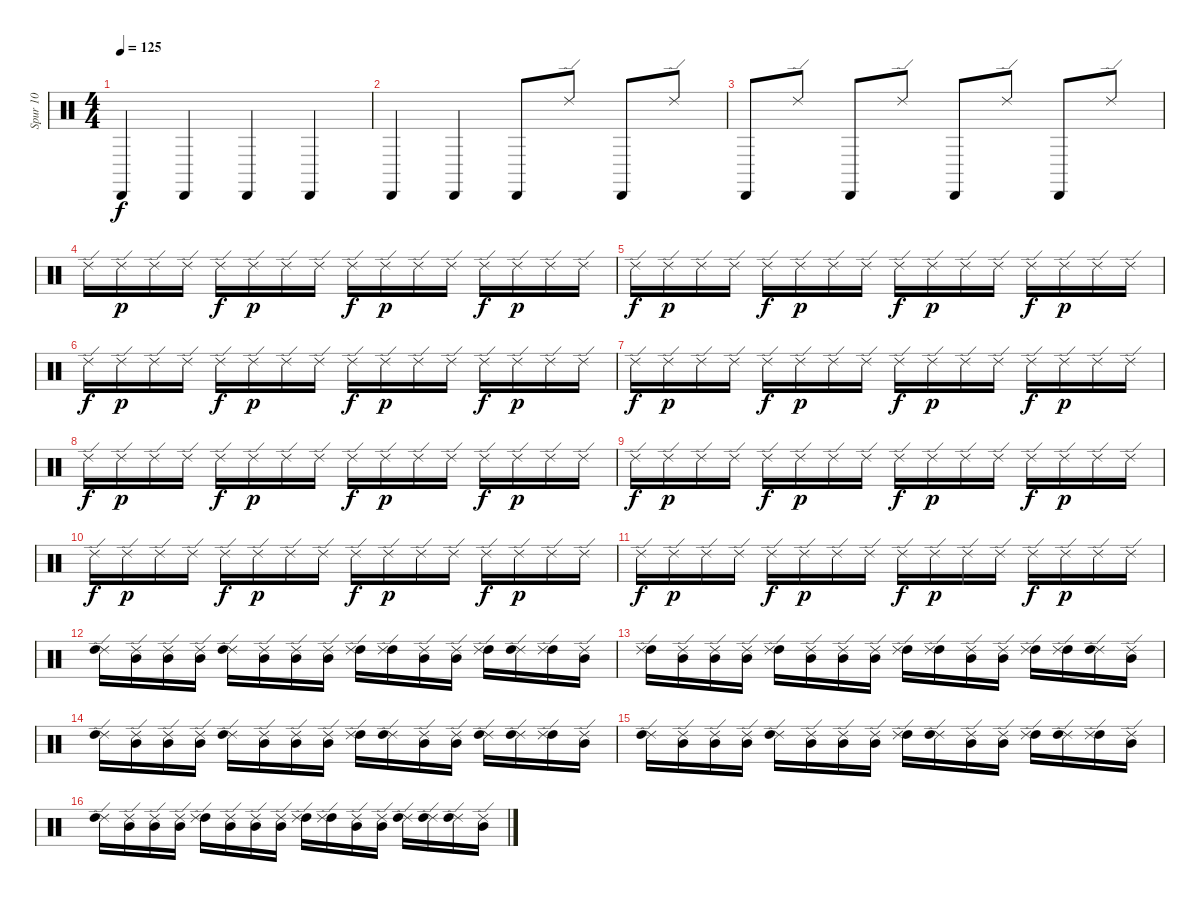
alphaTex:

\track ("Spur 10" "Spur 10") {instrument percussion}
\staff {score}
\articulation defaults
\ts (4 4)
\tempo 125
\clef neutral
\ks c "Cabasa (hit)".4{dy f} "Cabasa (hit)".4 "Cabasa (hit)".4 "Cabasa (hit)".4
|
"Cabasa (hit)".4 "Cabasa (hit)".4 "Cabasa (hit)".8 "Ride (edge) 2".8 "Cabasa (hit)".8 "Ride (edge) 2".8 |
"Cabasa (hit)".8 "Ride (edge) 2".8 "Cabasa (hit)".8 "Ride (edge) 2".8 "Cabasa (hit)".8 "Ride (edge) 2".8 "Cabasa (hit)".8 "Ride (edge) 2".8 |
"Ride (edge) 2".16 "Ride (edge) 2".16{dy p} "Ride (edge) 2".16 "Ride (edge) 2".16 "Ride (edge) 2".16{dy f} "Ride (edge) 2".16{dy p} "Ride (edge) 2".16 "Ride (edge) 2".16 "Ride (edge) 2".16{dy f} "Ride (edge) 2".16{dy p} "Ride (edge) 2".16 "Ride (edge) 2".16 "Ride (edge) 2".16{dy f} "Ride (edge) 2".16{dy p} "Ride (edge) 2".16 "Ride (edge) 2".16 |
"Ride (edge) 2".16{dy f} "Ride (edge) 2".16{dy p} "Ride (edge) 2".16 "Ride (edge) 2".16 "Ride (edge) 2".16{dy f} "Ride (edge) 2".16{dy p} "Ride (edge) 2".16 "Ride (edge) 2".16 "Ride (edge) 2".16{dy f} "Ride (edge) 2".16{dy p} "Ride (edge) 2".16 "Ride (edge) 2".16 "Ride (edge) 2".16{dy f} "Ride (edge) 2".16{dy p} "Ride (edge) 2".16 "Ride (edge) 2".16 |
"Ride (edge) 2".16{dy f} "Ride (edge) 2".16{dy p} "Ride (edge) 2".16 "Ride (edge) 2".16 "Ride (edge) 2".16{dy f} "Ride (edge) 2".16{dy p} "Ride (edge) 2".16 "Ride (edge) 2".16 "Ride (edge) 2".16{dy f} "Ride (edge) 2".16{dy p} "Ride (edge) 2".16 "Ride (edge) 2".16 "Ride (edge) 2".16{dy f} "Ride (edge) 2".16{dy p} "Ride (edge) 2".16 "Ride (edge) 2".16 |
"Ride (edge) 2".16{dy f} "Ride (edge) 2".16{dy p} "Ride (edge) 2".16 "Ride (edge) 2".16 "Ride (edge) 2".16{dy f} "Ride (edge) 2".16{dy p} "Ride (edge) 2".16 "Ride (edge) 2".16 "Ride (edge) 2".16{dy f} "Ride (edge) 2".16{dy p} "Ride (edge) 2".16 "Ride (edge) 2".16 "Ride (edge) 2".16{dy f} "Ride (edge) 2".16{dy p} "Ride (edge) 2".16 "Ride (edge) 2".16 |
"Ride (edge) 2".16{dy f} "Ride (edge) 2".16{dy p} "Ride (edge) 2".16 "Ride (edge) 2".16 "Ride (edge) 2".16{dy f} "Ride (edge) 2".16{dy p} "Ride (edge) 2".16 "Ride (edge) 2".16 "Ride (edge) 2".16{dy f} "Ride (edge) 2".16{dy p} "Ride (edge) 2".16 "Ride (edge) 2".16 "Ride (edge) 2".16{dy f} "Ride (edge) 2".16{dy p} "Ride (edge) 2".16 "Ride (edge) 2".16 |
"Ride (edge) 2".16{dy f} "Ride (edge) 2".16{dy p} "Ride (edge) 2".16 "Ride (edge) 2".16 "Ride (edge) 2".16{dy f} "Ride (edge) 2".16{dy p} "Ride (edge) 2".16 "Ride (edge) 2".16 "Ride (edge) 2".16{dy f} "Ride (edge) 2".16{dy p} "Ride (edge) 2".16 "Ride (edge) 2".16 "Ride (edge) 2".16{dy f} "Ride (edge) 2".16{dy p} "Ride (edge) 2".16 "Ride (edge) 2".16 |
"Ride (edge) 2".16{dy f} "Ride (edge) 2".16{dy p} "Ride (edge) 2".16 "Ride (edge) 2".16 "Ride (edge) 2".16{dy f} "Ride (edge) 2".16{dy p} "Ride (edge) 2".16 "Ride (edge) 2".16 "Ride (edge) 2".16{dy f} "Ride (edge) 2".16{dy p} "Ride (edge) 2".16 "Ride (edge) 2".16 "Ride (edge) 2".16{dy f} "Ride (edge) 2".16{dy p} "Ride (edge) 2".16 "Ride (edge) 2".16 |
"Ride (edge) 2".16{dy f} "Ride (edge) 2".16{dy p} "Ride (edge) 2".16 "Ride (edge) 2".16 "Ride (edge) 2".16{dy f} "Ride (edge) 2".16{dy p} "Ride (edge) 2".16 "Ride (edge) 2".16 "Ride (edge) 2".16{dy f} "Ride (edge) 2".16{dy p} "Ride (edge) 2".16 "Ride (edge) 2".16 "Ride (edge) 2".16{dy f} "Ride (edge) 2".16{dy p} "Ride (edge) 2".16 "Ride (edge) 2".16 |
("Ride (edge) 2" "High Tom (hit)").16 ("Ride (edge) 2" "Mid Tom (hit)").16 ("Mid Tom (hit)" "Ride (edge) 2").16 ("Ride (edge) 2" "Mid Tom (hit)").16 ("Ride (edge) 2" "High Tom (hit)").16 ("Ride (edge) 2" "Mid Tom (hit)").16 ("Mid Tom (hit)" "Ride (edge) 2").16 ("Mid Tom (hit)" "Ride (edge) 2").16 ("High Tom (hit)" "Ride (edge) 2").16 ("High Tom (hit)" "Ride (edge) 2").16 ("Mid Tom (hit)" "Ride (edge) 2").16 ("Ride (edge) 2" "Mid Tom (hit)").16 ("High Tom (hit)" "Ride (edge) 2").16 ("Ride (edge) 2" "High Tom (hit)").16 ("High Tom (hit)" "Ride (edge) 2").16 ("Mid Tom (hit)" "Ride (edge) 2").16 |
("High Tom (hit)" "Ride (edge) 2").16 ("Ride (edge) 2" "Mid Tom (hit)").16 ("Mid Tom (hit)" "Ride (edge) 2").16 ("Mid Tom (hit)" "Ride (edge) 2").16 ("High Tom (hit)" "Ride (edge) 2").16 ("Mid Tom (hit)" "Ride (edge) 2").16 ("Mid Tom (hit)" "Ride (edge) 2").16 ("Ride (edge) 2" "Mid Tom (hit)").16 ("High Tom (hit)" "Ride (edge) 2").16 ("High Tom (hit)" "Ride (edge) 2").16 ("Ride (edge) 2" "Mid Tom (hit)").16 ("Mid Tom (hit)" "Ride (edge) 2").16 ("High Tom (hit)" "Ride (edge) 2").16 ("High Tom (hit)" "Ride (edge) 2").16 ("Ride (edge) 2" "High Tom (hit)").16 ("Mid Tom (hit)" "Ride (edge) 2").16 |
("Ride (edge) 2" "High Tom (hit)").16 ("Ride (edge) 2" "Mid Tom (hit)").16 ("Ride (edge) 2" "Mid Tom (hit)").16 ("Mid Tom (hit)" "Ride (edge) 2").16 ("Ride (edge) 2" "High Tom (hit)").16 ("Mid Tom (hit)" "Ride (edge) 2").16 ("Mid Tom (hit)" "Ride (edge) 2").16 ("Ride (edge) 2" "Mid Tom (hit)").16 ("High Tom (hit)" "Ride (edge) 2").16 ("Ride (edge) 2" "High Tom (hit)").16 ("Mid Tom (hit)" "Ride (edge) 2").16 ("Mid Tom (hit)" "Ride (edge) 2").16 ("Ride (edge) 2" "High Tom (hit)").16 ("Ride (edge) 2" "High Tom (hit)").16 ("High Tom (hit)" "Ride (edge) 2").16 ("Mid Tom (hit)" "Ride (edge) 2").16 |
("Ride (edge) 2" "High Tom (hit)").16 ("Mid Tom (hit)" "Ride (edge) 2").16 ("Ride (edge) 2" "Mid Tom (hit)").16 ("Ride (edge) 2" "Mid Tom (hit)").16 ("Ride (edge) 2" "High Tom (hit)").16 ("Mid Tom (hit)" "Ride (edge) 2").16 ("Ride (edge) 2" "Mid Tom (hit)").16 ("Ride (edge) 2" "Mid Tom (hit)").16 ("High Tom (hit)" "Ride (edge) 2").16 ("Ride (edge) 2" "High Tom (hit)").16 ("Ride (edge) 2" "Mid Tom (hit)").16 ("Ride (edge) 2" "Mid Tom (hit)").16 ("High Tom (hit)" "Ride (edge) 2").16 ("Ride (edge) 2" "High Tom (hit)").16 ("High Tom (hit)" "Ride (edge) 2").16 ("Mid Tom (hit)" "Ride (edge) 2").16 |
("Ride (edge) 2" "High Tom (hit)").16 ("Mid Tom (hit)" "Ride (edge) 2").16 ("Ride (edge) 2" "Mid Tom (hit)").16 ("Ride (edge) 2" "Mid Tom (hit)").16 ("High Tom (hit)" "Ride (edge) 2").16 ("Mid Tom (hit)" "Ride (edge) 2").16 ("Ride (edge) 2" "Mid Tom (hit)").16 ("Mid Tom (hit)" "Ride (edge) 2").16 ("High Tom (hit)" "Ride (edge) 2").16 ("High Tom (hit)" "Ride (edge) 2").16 ("Mid Tom (hit)" "Ride (edge) 2").16 ("Mid Tom (hit)" "Ride (edge) 2").16 ("Ride (edge) 2" "High Tom (hit)").16 ("Ride (edge) 2" "High Tom (hit)").16 ("Ride (edge) 2" "High Tom (hit)").16 ("Mid Tom (hit)" "Ride (edge) 2").16
